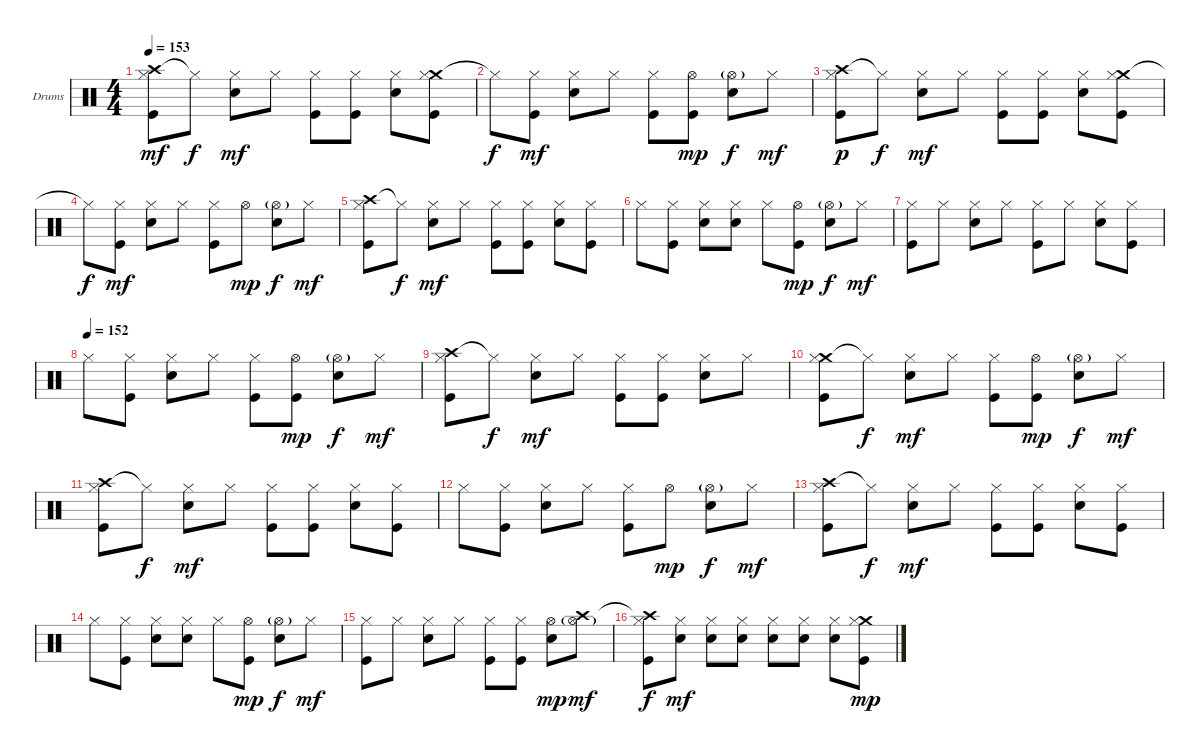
\bracketExtendMode groupsimilarinstruments
\firstSystemTrackNameOrientation horizontal
\otherSystemsTrackNameOrientation horizontal
\track ("Drumkit" "Drums") {instrument percussion}
\staff {score}
\articulation defaults
\ts (4 4)
\tempo 153
\clef neutral
\ks c
("Crash high (hit)" "Hi-Hat (closed)" "Kick (hit)").8{dy mf} "Hi-Hat (closed)"{t}.8{dy f} ("Hi-Hat (closed)" "Snare (hit) 2").8{dy mf} "Hi-Hat (closed)".8 ("Hi-Hat (closed)" "Kick (hit)").8 ("Hi-Hat (closed)" "Kick (hit)").8 ("Hi-Hat (closed)" "Snare (hit) 2").8 ("Crash medium (hit)" "Hi-Hat (closed)" "Kick (hit)").8 |
"Hi-Hat (closed)"{t}.8{dy f} ("Hi-Hat (closed)" "Kick (hit)").8{dy mf} ("Hi-Hat (closed)" "Snare (hit) 2").8 "Hi-Hat (closed)".8 ("Hi-Hat (closed)" "Kick (hit)").8 ("Hi-Hat (open)" "Kick (hit)").8{dy mp} ("Hi-Hat (open)"{g} "Snare (hit) 2").8{dy f} "Hi-Hat (closed)".8{dy mf} |
("Crash high (hit)" "Hi-Hat (closed)" "Kick (hit)").8{dy p} "Hi-Hat (closed)"{t}.8{dy f} ("Hi-Hat (closed)" "Snare (hit) 2").8{dy mf} "Hi-Hat (closed)".8 ("Hi-Hat (closed)" "Kick (hit)").8 ("Hi-Hat (closed)" "Kick (hit)").8 ("Hi-Hat (closed)" "Snare (hit) 2").8 ("Crash medium (hit)" "Hi-Hat (closed)" "Kick (hit)").8 |
"Hi-Hat (closed)"{t}.8{dy f} ("Hi-Hat (closed)" "Kick (hit)").8{dy mf} ("Hi-Hat (closed)" "Snare (hit) 2").8 "Hi-Hat (closed)".8 ("Hi-Hat (closed)" "Kick (hit)").8 "Hi-Hat (open)".8{dy mp} ("Hi-Hat (open)"{g} "Snare (hit) 2").8{dy f} "Hi-Hat (closed)".8{dy mf} |
("Crash high (hit)" "Hi-Hat (closed)" "Kick (hit)").8 "Hi-Hat (closed)"{t}.8{dy f} ("Hi-Hat (closed)" "Snare (hit) 2").8{dy mf} "Hi-Hat (closed)".8 ("Hi-Hat (closed)" "Kick (hit)").8 ("Hi-Hat (closed)" "Kick (hit)").8 ("Hi-Hat (closed)" "Snare (hit) 2").8 ("Hi-Hat (closed)" "Kick (hit)").8 |
"Hi-Hat (closed)".8 ("Hi-Hat (closed)" "Kick (hit)").8 ("Hi-Hat (closed)" "Snare (hit) 2").8 ("Hi-Hat (closed)" "Snare (hit) 2").8 "Hi-Hat (closed)".8 ("Hi-Hat (open)" "Kick (hit)").8{dy mp} ("Hi-Hat (open)"{g} "Snare (hit) 2").8{dy f} "Hi-Hat (closed)".8{dy mf} |
("Hi-Hat (closed)" "Kick (hit)").8 "Hi-Hat (closed)".8 ("Hi-Hat (closed)" "Snare (hit) 2").8 "Hi-Hat (closed)".8 ("Hi-Hat (closed)" "Kick (hit)").8 "Hi-Hat (closed)".8 ("Hi-Hat (closed)" "Snare (hit) 2").8 ("Hi-Hat (closed)" "Kick (hit)").8 |
\tempo (152)
"Hi-Hat (closed)".8 ("Hi-Hat (closed)" "Kick (hit)").8 ("Hi-Hat (closed)" "Snare (hit) 2").8 "Hi-Hat (closed)".8 ("Hi-Hat (closed)" "Kick (hit)").8 ("Hi-Hat (open)" "Kick (hit)").8{dy mp} ("Hi-Hat (open)"{g} "Snare (hit) 2").8{dy f} "Hi-Hat (closed)".8{dy mf} |
("Crash high (hit)" "Hi-Hat (closed)" "Kick (hit)").8 "Hi-Hat (closed)"{t}.8{dy f} ("Hi-Hat (closed)" "Snare (hit) 2").8{dy mf} "Hi-Hat (closed)".8 ("Hi-Hat (closed)" "Kick (hit)").8 ("Hi-Hat (closed)" "Kick (hit)").8 ("Hi-Hat (closed)" "Snare (hit) 2").8 "Hi-Hat (closed)".8 |
("Crash medium (hit)" "Hi-Hat (closed)" "Kick (hit)").8 "Hi-Hat (closed)"{t}.8{dy f} ("Hi-Hat (closed)" "Snare (hit) 2").8{dy mf} "Hi-Hat (closed)".8 ("Hi-Hat (closed)" "Kick (hit)").8 ("Hi-Hat (open)" "Kick (hit)").8{dy mp} ("Hi-Hat (open)"{g} "Snare (hit) 2").8{dy f} "Hi-Hat (closed)".8{dy mf} |
("Crash high (hit)" "Hi-Hat (closed)" "Kick (hit)").8 "Hi-Hat (closed)"{t}.8{dy f} ("Hi-Hat (closed)" "Snare (hit) 2").8{dy mf} "Hi-Hat (closed)".8 ("Hi-Hat (closed)" "Kick (hit)").8 ("Hi-Hat (closed)" "Kick (hit)").8 ("Hi-Hat (closed)" "Snare (hit) 2").8 ("Hi-Hat (closed)" "Kick (hit)").8 |
"Hi-Hat (closed)".8 ("Hi-Hat (closed)" "Kick (hit)").8 ("Hi-Hat (closed)" "Snare (hit) 2").8 "Hi-Hat (closed)".8 ("Hi-Hat (closed)" "Kick (hit)").8 "Hi-Hat (open)".8{dy mp} ("Hi-Hat (open)"{g} "Snare (hit) 2").8{dy f} "Hi-Hat (closed)".8{dy mf} |
("Crash high (hit)" "Hi-Hat (closed)" "Kick (hit)").8 "Hi-Hat (closed)"{t}.8{dy f} ("Hi-Hat (closed)" "Snare (hit) 2").8{dy mf} "Hi-Hat (closed)".8 ("Hi-Hat (closed)" "Kick (hit)").8 ("Hi-Hat (closed)" "Kick (hit)").8 ("Hi-Hat (closed)" "Snare (hit) 2").8 ("Hi-Hat (closed)" "Kick (hit)").8 |
"Hi-Hat (closed)".8 ("Hi-Hat (closed)" "Kick (hit)").8 ("Hi-Hat (closed)" "Snare (hit) 2").8 ("Hi-Hat (closed)" "Snare (hit) 2").8 "Hi-Hat (closed)".8 ("Hi-Hat (open)" "Kick (hit)").8{dy mp} ("Hi-Hat (open)"{g} "Snare (hit) 2").8{dy f} "Hi-Hat (closed)".8{dy mf} |
("Hi-Hat (closed)" "Kick (hit)").8 "Hi-Hat (closed)".8 ("Hi-Hat (closed)" "Snare (hit) 2").8 "Hi-Hat (closed)".8 ("Hi-Hat (closed)" "Kick (hit)").8 ("Hi-Hat (closed)" "Kick (hit)").8 ("Hi-Hat (open)" "Snare (hit) 2").8{dy mp} ("Crash high (hit)" "Hi-Hat (open)"{g}).8{dy mf} |
("Crash high (hit)"{t} "Hi-Hat (closed)" "Kick (hit)").8{dy f} ("Hi-Hat (closed)" "Snare (hit) 2").8{dy mf} ("Hi-Hat (closed)" "Snare (hit) 2").8 ("Hi-Hat (closed)" "Snare (hit) 2").8 ("Hi-Hat (closed)" "Snare (hit) 2").8 ("Hi-Hat (closed)" "Snare (hit) 2").8 ("Hi-Hat (closed)" "Snare (hit) 2").8 ("Crash medium (hit)" "Hi-Hat (closed)" "Kick (hit)").8{dy mp}
